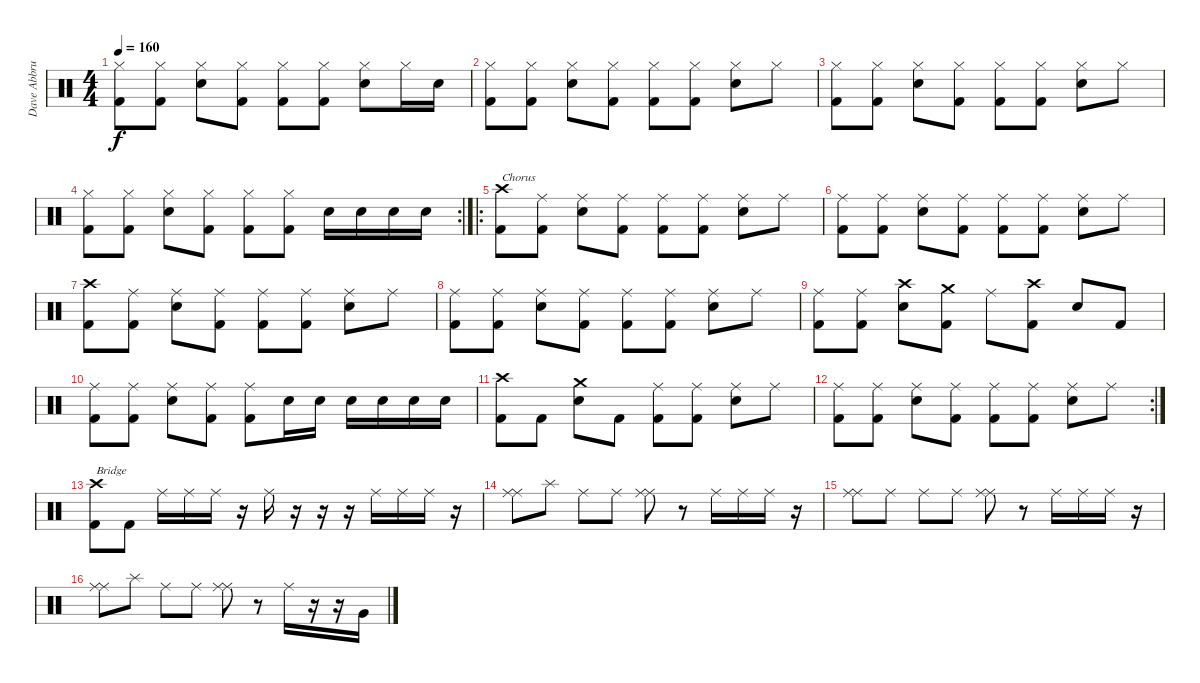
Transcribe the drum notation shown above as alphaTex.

\track ("Dave Abbruzzese" "Dave Abbru") {instrument percussion}
\staff {score}
\articulation defaults
\ts (4 4)
\tempo 160
\clef neutral
\ks c
("Hi-Hat (closed)" "Kick (hit) 2").8{dy f} ("Hi-Hat (closed)" "Kick (hit) 2").8 ("Hi-Hat (closed)" "Snare (hit) 2").8 ("Hi-Hat (closed)" "Kick (hit) 2").8 ("Hi-Hat (closed)" "Kick (hit) 2").8 ("Hi-Hat (closed)" "Kick (hit) 2").8 ("Hi-Hat (closed)" "Snare (hit) 2").8 "Hi-Hat (closed)".16 "Snare (hit) 2".16 |
("Hi-Hat (closed)" "Kick (hit) 2").8 ("Hi-Hat (closed)" "Kick (hit) 2").8 ("Hi-Hat (closed)" "Snare (hit) 2").8 ("Hi-Hat (closed)" "Kick (hit) 2").8 ("Hi-Hat (closed)" "Kick (hit) 2").8 ("Hi-Hat (closed)" "Kick (hit) 2").8 ("Hi-Hat (closed)" "Snare (hit) 2").8 "Hi-Hat (closed)".8 |
("Hi-Hat (closed)" "Kick (hit) 2").8 ("Hi-Hat (closed)" "Kick (hit) 2").8 ("Hi-Hat (closed)" "Snare (hit) 2").8 ("Hi-Hat (closed)" "Kick (hit) 2").8 ("Hi-Hat (closed)" "Kick (hit) 2").8 ("Hi-Hat (closed)" "Kick (hit) 2").8 ("Hi-Hat (closed)" "Snare (hit) 2").8 "Hi-Hat (closed)".8 |
\rc 2
("Hi-Hat (closed)" "Kick (hit) 2").8 ("Hi-Hat (closed)" "Kick (hit) 2").8 ("Hi-Hat (closed)" "Snare (hit) 2").8 ("Hi-Hat (closed)" "Kick (hit) 2").8 ("Hi-Hat (closed)" "Kick (hit) 2").8 ("Hi-Hat (closed)" "Kick (hit) 2").8 "Snare (hit) 2".16 "Snare (hit) 2".16 "Snare (hit) 2".16 "Snare (hit) 2".16 |
\ro
("Crash high (hit)" "Kick (hit) 2").8{txt "Chorus"} ("Ride (middle)" "Kick (hit) 2").8 ("Ride (middle)" "Snare (hit) 2").8 ("Ride (middle)" "Kick (hit) 2").8 ("Ride (middle)" "Kick (hit) 2").8 ("Ride (middle)" "Kick (hit) 2").8 ("Ride (middle)" "Snare (hit) 2").8 "Ride (middle)".8 |
("Ride (middle)" "Kick (hit) 2").8 ("Ride (middle)" "Kick (hit) 2").8 ("Ride (middle)" "Snare (hit) 2").8 ("Ride (middle)" "Kick (hit) 2").8 ("Ride (middle)" "Kick (hit) 2").8 ("Ride (middle)" "Kick (hit) 2").8 ("Ride (middle)" "Snare (hit) 2").8 "Ride (middle)".8 |
("Crash high (hit)" "Kick (hit) 2").8 ("Ride (middle)" "Kick (hit) 2").8 ("Ride (middle)" "Snare (hit) 2").8 ("Ride (middle)" "Kick (hit) 2").8 ("Ride (middle)" "Kick (hit) 2").8 ("Ride (middle)" "Kick (hit) 2").8 ("Ride (middle)" "Snare (hit) 2").8 "Ride (middle)".8 |
("Ride (middle)" "Kick (hit) 2").8 ("Ride (middle)" "Kick (hit) 2").8 ("Ride (middle)" "Snare (hit) 2").8 ("Ride (middle)" "Kick (hit) 2").8 ("Ride (middle)" "Kick (hit) 2").8 ("Ride (middle)" "Kick (hit) 2").8 ("Ride (middle)" "Snare (hit) 2").8 "Ride (middle)".8 |
("Ride (middle)" "Kick (hit) 2").8 ("Ride (middle)" "Kick (hit) 2").8 ("Crash high (hit)" "Snare (hit) 2").8 ("Crash medium (hit)" "Kick (hit) 2").8 "Ride (middle)".8 ("Crash high (hit)" "Kick (hit) 2").8 "Snare (hit) 2".8 "Kick (hit) 2".8 |
("Ride (middle)" "Kick (hit) 2").8 ("Ride (middle)" "Kick (hit) 2").8 ("Ride (middle)" "Snare (hit) 2").8 ("Ride (middle)" "Kick (hit) 2").8 ("Ride (middle)" "Kick (hit) 2").8 "Snare (hit) 2".16 "Snare (hit) 2".16 "Snare (hit) 2".16 "Snare (hit) 2".16 "Snare (hit) 2".16 "Snare (hit) 2".16 |
("Crash high (hit)" "Kick (hit) 2").8 "Kick (hit) 2".8 ("Crash medium (hit)" "Snare (hit) 2").8 "Kick (hit) 2".8 ("Ride (middle)" "Kick (hit) 2").8 ("Ride (middle)" "Kick (hit) 2").8 ("Ride (middle)" "Snare (hit) 2").8 "Ride (middle)".8 |
\rc 2
("Ride (middle)" "Kick (hit) 2").8 ("Ride (middle)" "Kick (hit) 2").8 ("Ride (middle)" "Snare (hit) 2").8 ("Ride (middle)" "Kick (hit) 2").8 ("Ride (middle)" "Kick (hit) 2").8 ("Ride (middle)" "Kick (hit) 2").8 ("Ride (middle)" "Snare (hit) 2").8 "Ride (middle)".8 |
("Crash high (hit)" "Kick (hit) 2").8{txt "Bridge"} "Kick (hit) 2".8 "Ride (middle)".16 "Ride (middle)".16 "Ride (middle)".16 r.16 "Ride (middle)".16 r.16 r.16 r.16 "Ride (middle)".16 "Ride (middle)".16 "Ride (middle)".16 r.16 |
("Ride (middle)" "Ride (middle)").8 "Splash (hit)".8 "Ride (middle)".8 "Ride (middle)".8 ("Ride (middle)" "Ride (middle)").8 r.8 "Ride (middle)".16 "Ride (middle)".16 "Ride (middle)".16 r.16 |
("Ride (middle)" "Ride (middle)").8 "Ride (middle)".8 "Ride (middle)".8 "Ride (middle)".8 ("Ride (middle)" "Ride (middle)").8 r.8 "Ride (middle)".16 "Ride (middle)".16 "Ride (middle)".16 r.16 |
("Ride (middle)" "Ride (middle)").8 "Splash (hit)".8 "Ride (middle)".8 "Ride (middle)".8 ("Ride (middle)" "Ride (middle)").8 r.8 "Ride (middle)".16 r.16 r.16 "Very Low Tom (hit)".16
